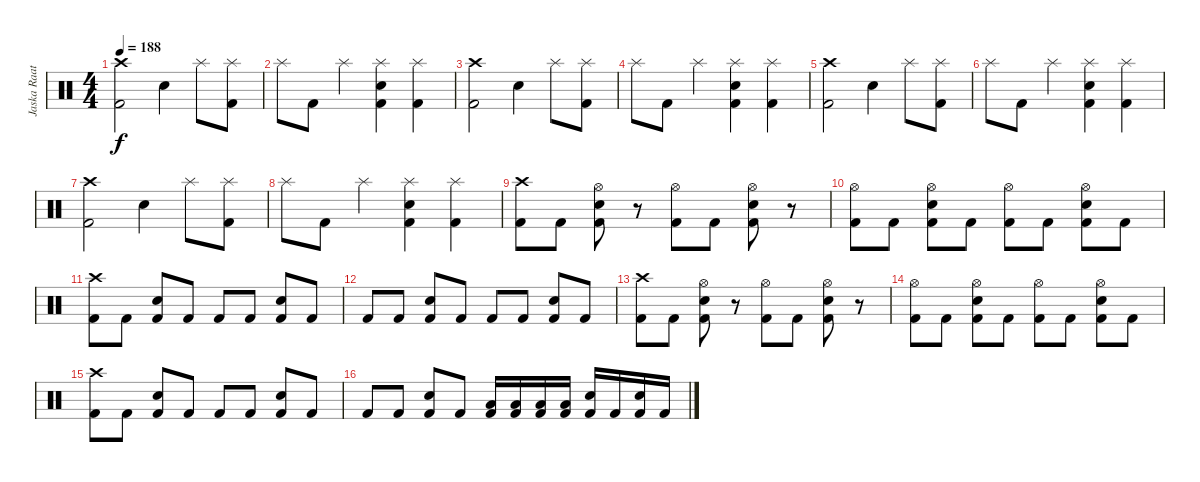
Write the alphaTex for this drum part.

\track ("Jaska Raatikainen" "Jaska Raat") {instrument percussion}
\staff {score}
\articulation defaults
\ts (4 4)
\tempo 188
\clef neutral
\ks c
("Crash high (hit)" "Kick (hit) 2").2{dy f} "Electric Snare (hit)".4 "Splash (hit)".8 ("Splash (hit)" "Kick (hit) 2").8 |
"Splash (hit)".8 "Kick (hit) 2".8 "Splash (hit)".4 ("Splash (hit)" "Electric Snare (hit)" "Kick (hit) 2").4 ("Splash (hit)" "Kick (hit) 2").4 |
("Crash high (hit)" "Kick (hit) 2").2 "Electric Snare (hit)".4 "Splash (hit)".8 ("Splash (hit)" "Kick (hit) 2").8 |
"Splash (hit)".8 "Kick (hit) 2".8 "Splash (hit)".4 ("Splash (hit)" "Electric Snare (hit)" "Kick (hit) 2").4 ("Splash (hit)" "Kick (hit) 2").4 |
("Crash high (hit)" "Kick (hit) 2").2 "Electric Snare (hit)".4 "Splash (hit)".8 ("Splash (hit)" "Kick (hit) 2").8 |
"Splash (hit)".8 "Kick (hit) 2".8 "Splash (hit)".4 ("Splash (hit)" "Electric Snare (hit)" "Kick (hit) 2").4 ("Splash (hit)" "Kick (hit) 2").4 |
("Crash high (hit)" "Kick (hit) 2").2 "Electric Snare (hit)".4 "Splash (hit)".8 ("Splash (hit)" "Kick (hit) 2").8 |
"Splash (hit)".8 "Kick (hit) 2".8 "Splash (hit)".4 ("Splash (hit)" "Electric Snare (hit)" "Kick (hit) 2").4 ("Splash (hit)" "Kick (hit) 2").4 |
("Crash high (hit)" "Kick (hit) 2").8 "Kick (hit) 2".8 ("Hi-Hat (open)" "Electric Snare (hit)" "Kick (hit) 2").8 r.8 ("Hi-Hat (open)" "Kick (hit) 2").8 "Kick (hit) 2".8 ("Hi-Hat (open)" "Electric Snare (hit)" "Kick (hit) 2").8 r.8 |
("Hi-Hat (open)" "Kick (hit) 2").8 "Kick (hit) 2".8 ("Hi-Hat (open)" "Electric Snare (hit)" "Kick (hit) 2").8 "Kick (hit) 2".8 ("Hi-Hat (open)" "Kick (hit) 2").8 "Kick (hit) 2".8 ("Hi-Hat (open)" "Electric Snare (hit)" "Kick (hit) 2").8 "Kick (hit) 2".8 |
("Crash high (hit)" "Kick (hit) 2").8 "Kick (hit) 2".8 ("Electric Snare (hit)" "Kick (hit) 2").8 "Kick (hit) 2".8 "Kick (hit) 2".8 "Kick (hit) 2".8 ("Electric Snare (hit)" "Kick (hit) 2").8 "Kick (hit) 2".8 |
"Kick (hit) 2".8 "Kick (hit) 2".8 ("Electric Snare (hit)" "Kick (hit) 2").8 "Kick (hit) 2".8 "Kick (hit) 2".8 "Kick (hit) 2".8 ("Electric Snare (hit)" "Kick (hit) 2").8 "Kick (hit) 2".8 |
("Crash high (hit)" "Kick (hit) 2").8 "Kick (hit) 2".8 ("Hi-Hat (open)" "Electric Snare (hit)" "Kick (hit) 2").8 r.8 ("Hi-Hat (open)" "Kick (hit) 2").8 "Kick (hit) 2".8 ("Hi-Hat (open)" "Electric Snare (hit)" "Kick (hit) 2").8 r.8 |
("Hi-Hat (open)" "Kick (hit) 2").8 "Kick (hit) 2".8 ("Hi-Hat (open)" "Electric Snare (hit)" "Kick (hit) 2").8 "Kick (hit) 2".8 ("Hi-Hat (open)" "Kick (hit) 2").8 "Kick (hit) 2".8 ("Hi-Hat (open)" "Electric Snare (hit)" "Kick (hit) 2").8 "Kick (hit) 2".8 |
("Crash high (hit)" "Kick (hit) 2").8 "Kick (hit) 2".8 ("Electric Snare (hit)" "Kick (hit) 2").8 "Kick (hit) 2".8 "Kick (hit) 2".8 "Kick (hit) 2".8 ("Electric Snare (hit)" "Kick (hit) 2").8 "Kick (hit) 2".8 |
"Kick (hit) 2".8 "Kick (hit) 2".8 ("Electric Snare (hit)" "Kick (hit) 2").8 "Kick (hit) 2".8 ("Low Tom (hit)" "Kick (hit) 2").16 ("Low Tom (hit)" "Kick (hit) 2").16 ("Low Tom (hit)" "Kick (hit) 2").16 ("Low Tom (hit)" "Kick (hit) 2").16 ("Electric Snare (hit)" "Kick (hit) 2").16 "Kick (hit) 2".16 ("Electric Snare (hit)" "Kick (hit) 2").16 "Kick (hit) 2".16
